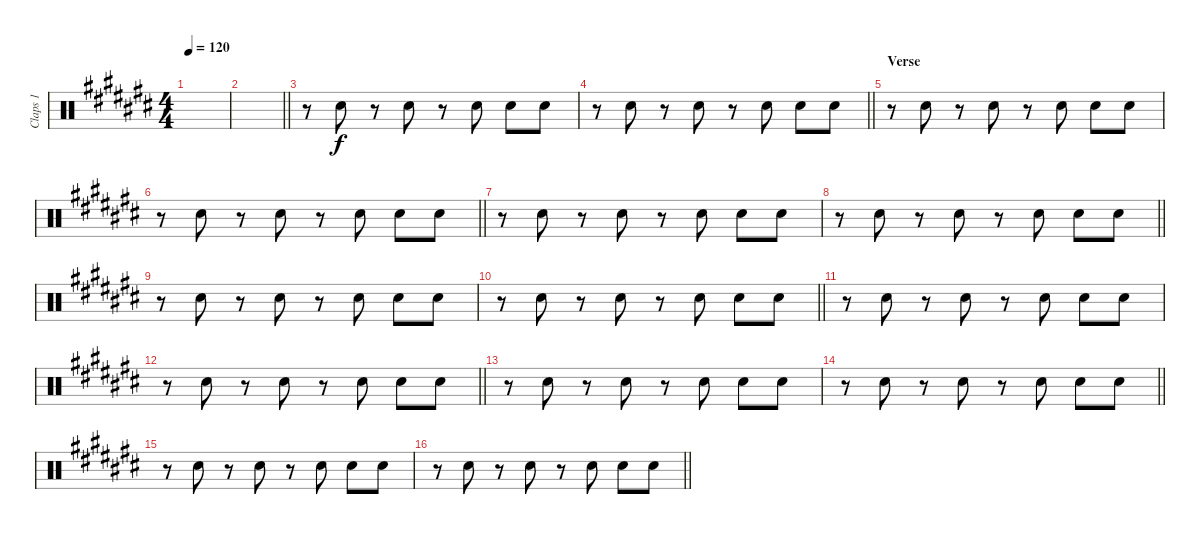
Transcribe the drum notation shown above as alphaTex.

\track ("Claps 1" "Claps 1") {instrument percussion}
\staff {score}
\articulation defaults
\ts (4 4)
\tempo 120
\clef neutral
\ks c#
|
\barLineRight lightlight
|
r.8 "Hand Clap (hit)".8 r.8 "Hand Clap (hit)".8 r.8 "Hand Clap (hit)".8 "Hand Clap (hit)".8 "Hand Clap (hit)".8 |
\barLineRight lightlight
r.8 "Hand Clap (hit)".8 r.8 "Hand Clap (hit)".8 r.8 "Hand Clap (hit)".8 "Hand Clap (hit)".8 "Hand Clap (hit)".8 |
\section ("" "Verse")
r.8 "Hand Clap (hit)".8 r.8 "Hand Clap (hit)".8 r.8 "Hand Clap (hit)".8 "Hand Clap (hit)".8 "Hand Clap (hit)".8 |
\barLineRight lightlight
r.8 "Hand Clap (hit)".8 r.8 "Hand Clap (hit)".8 r.8 "Hand Clap (hit)".8 "Hand Clap (hit)".8 "Hand Clap (hit)".8 |
r.8 "Hand Clap (hit)".8 r.8 "Hand Clap (hit)".8 r.8 "Hand Clap (hit)".8 "Hand Clap (hit)".8 "Hand Clap (hit)".8 |
\barLineRight lightlight
r.8 "Hand Clap (hit)".8 r.8 "Hand Clap (hit)".8 r.8 "Hand Clap (hit)".8 "Hand Clap (hit)".8 "Hand Clap (hit)".8 |
r.8 "Hand Clap (hit)".8 r.8 "Hand Clap (hit)".8 r.8 "Hand Clap (hit)".8 "Hand Clap (hit)".8 "Hand Clap (hit)".8 |
\barLineRight lightlight
r.8 "Hand Clap (hit)".8 r.8 "Hand Clap (hit)".8 r.8 "Hand Clap (hit)".8 "Hand Clap (hit)".8 "Hand Clap (hit)".8 |
r.8 "Hand Clap (hit)".8 r.8 "Hand Clap (hit)".8 r.8 "Hand Clap (hit)".8 "Hand Clap (hit)".8 "Hand Clap (hit)".8 |
\barLineRight lightlight
r.8 "Hand Clap (hit)".8 r.8 "Hand Clap (hit)".8 r.8 "Hand Clap (hit)".8 "Hand Clap (hit)".8 "Hand Clap (hit)".8 |
r.8 "Hand Clap (hit)".8 r.8 "Hand Clap (hit)".8 r.8 "Hand Clap (hit)".8 "Hand Clap (hit)".8 "Hand Clap (hit)".8 |
\barLineRight lightlight
r.8 "Hand Clap (hit)".8 r.8 "Hand Clap (hit)".8 r.8 "Hand Clap (hit)".8 "Hand Clap (hit)".8 "Hand Clap (hit)".8 |
r.8 "Hand Clap (hit)".8 r.8 "Hand Clap (hit)".8 r.8 "Hand Clap (hit)".8 "Hand Clap (hit)".8 "Hand Clap (hit)".8 |
\barLineRight lightlight
r.8 "Hand Clap (hit)".8 r.8 "Hand Clap (hit)".8 r.8 "Hand Clap (hit)".8 "Hand Clap (hit)".8 "Hand Clap (hit)".8
